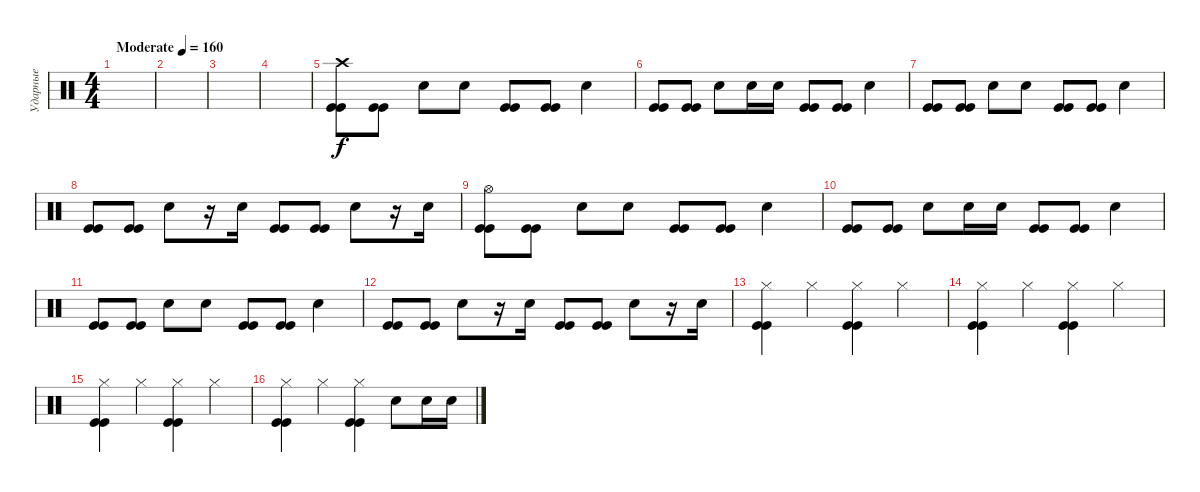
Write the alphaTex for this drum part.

\track ("Ударные" "Ударные") {instrument percussion}
\staff {score}
\articulation defaults
\ts (4 4)
\tempo (160 "Moderate")
\clef neutral
\ks c
|
|
|
|
("Crash high (hit)" "Kick (hit)" "Kick (hit)").8 ("Kick (hit)" "Kick (hit)").8 "Electric Snare (hit)".8 "Electric Snare (hit)".8 ("Kick (hit)" "Kick (hit)").8 ("Kick (hit)" "Kick (hit)").8 "Electric Snare (hit)".4 |
("Kick (hit)" "Kick (hit)").8 ("Kick (hit)" "Kick (hit)").8 "Electric Snare (hit)".8 "Electric Snare (hit)".16 "Electric Snare (hit)".16 ("Kick (hit)" "Kick (hit)").8 ("Kick (hit)" "Kick (hit)").8 "Electric Snare (hit)".4 |
("Kick (hit)" "Kick (hit)").8 ("Kick (hit)" "Kick (hit)").8 "Electric Snare (hit)".8 "Electric Snare (hit)".8 ("Kick (hit)" "Kick (hit)").8 ("Kick (hit)" "Kick (hit)").8 "Electric Snare (hit)".4 |
("Kick (hit)" "Kick (hit)").8 ("Kick (hit)" "Kick (hit)").8 "Electric Snare (hit)".8 r.16 "Electric Snare (hit)".16 ("Kick (hit)" "Kick (hit)").8 ("Kick (hit)" "Kick (hit)").8 "Electric Snare (hit)".8 r.16 "Electric Snare (hit)".16 |
("Hi-Hat (open)" "Kick (hit)" "Kick (hit)").8 ("Kick (hit)" "Kick (hit)").8 "Electric Snare (hit)".8 "Electric Snare (hit)".8 ("Kick (hit)" "Kick (hit)").8 ("Kick (hit)" "Kick (hit)").8 "Electric Snare (hit)".4 |
("Kick (hit)" "Kick (hit)").8 ("Kick (hit)" "Kick (hit)").8 "Electric Snare (hit)".8 "Electric Snare (hit)".16 "Electric Snare (hit)".16 ("Kick (hit)" "Kick (hit)").8 ("Kick (hit)" "Kick (hit)").8 "Electric Snare (hit)".4 |
("Kick (hit)" "Kick (hit)").8 ("Kick (hit)" "Kick (hit)").8 "Electric Snare (hit)".8 "Electric Snare (hit)".8 ("Kick (hit)" "Kick (hit)").8 ("Kick (hit)" "Kick (hit)").8 "Electric Snare (hit)".4 |
("Kick (hit)" "Kick (hit)").8 ("Kick (hit)" "Kick (hit)").8 "Electric Snare (hit)".8 r.16 "Electric Snare (hit)".16 ("Kick (hit)" "Kick (hit)").8 ("Kick (hit)" "Kick (hit)").8 "Electric Snare (hit)".8 r.16 "Electric Snare (hit)".16 |
("Hi-Hat (closed)" "Kick (hit)" "Kick (hit)").4 "Hi-Hat (closed)".4 ("Hi-Hat (closed)" "Kick (hit)" "Kick (hit)").4 "Hi-Hat (closed)".4 |
("Hi-Hat (closed)" "Kick (hit)" "Kick (hit)").4 "Hi-Hat (closed)".4 ("Hi-Hat (closed)" "Kick (hit)" "Kick (hit)").4 "Hi-Hat (closed)".4 |
("Hi-Hat (closed)" "Kick (hit)" "Kick (hit)").4 "Hi-Hat (closed)".4 ("Hi-Hat (closed)" "Kick (hit)" "Kick (hit)").4 "Hi-Hat (closed)".4 |
("Hi-Hat (closed)" "Kick (hit)" "Kick (hit)").4 "Hi-Hat (closed)".4 ("Hi-Hat (closed)" "Kick (hit)" "Kick (hit)").4 "Electric Snare (hit)".8 "Electric Snare (hit)".16 "Electric Snare (hit)".16
